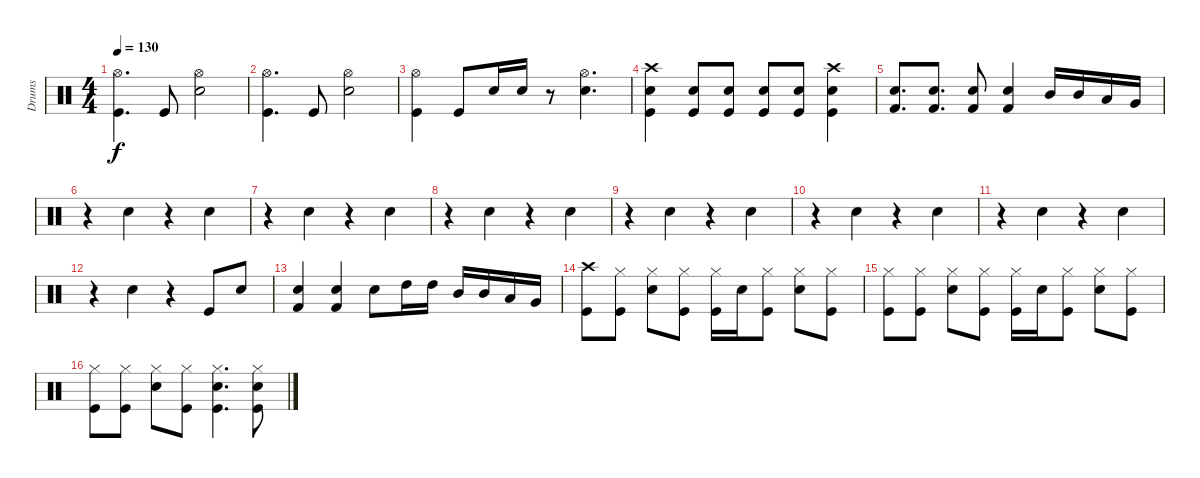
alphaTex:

\track ("Drums" "Drums") {instrument percussion}
\staff {score}
\articulation defaults
\ts (4 4)
\tempo 130
\clef neutral
\ks c
("Hi-Hat (open)" "Kick (hit)").4{d dy f} "Kick (hit)".8 ("Hi-Hat (open)" "Snare (hit) 2").2 |
("Hi-Hat (open)" "Kick (hit)").4{d} "Kick (hit)".8 ("Hi-Hat (open)" "Snare (hit) 2").2 |
("Hi-Hat (open)" "Kick (hit)").4 "Kick (hit)".8 "Snare (hit) 2".16 "Snare (hit) 2".16 r.8 ("Hi-Hat (open)" "Snare (hit) 2").4{d} |
("Crash high (hit)" "Snare (hit) 2" "Kick (hit)").4 ("Snare (hit) 2" "Kick (hit)").8 ("Snare (hit) 2" "Kick (hit)").8 ("Snare (hit) 2" "Kick (hit)").8 ("Snare (hit) 2" "Kick (hit)").8 ("Crash high (hit)" "Snare (hit) 2" "Kick (hit)").4 |
("Kick (hit) 2" "Snare (hit) 2").8{d} ("Kick (hit) 2" "Snare (hit) 2").8{d} ("Kick (hit) 2" "Snare (hit) 2").8 ("Kick (hit) 2" "Snare (hit) 2").4 "Mid Tom (hit)".16 "Mid Tom (hit)".16 "Low Tom (hit)".16 "Very Low Tom (hit)".16 |
r.4 "Snare (hit) 2".4 r.4 "Snare (hit) 2".4 |
r.4 "Snare (hit) 2".4 r.4 "Snare (hit) 2".4 |
r.4 "Snare (hit) 2".4 r.4 "Snare (hit) 2".4 |
r.4 "Snare (hit) 2".4 r.4 "Snare (hit) 2".4 |
r.4 "Snare (hit) 2".4 r.4 "Snare (hit) 2".4 |
r.4 "Snare (hit) 2".4 r.4 "Snare (hit) 2".4 |
r.4 "Snare (hit) 2".4 r.4 "Kick (hit)".8 "Snare (hit) 2".8 |
("Kick (hit) 2" "Snare (hit) 2").4 ("Kick (hit) 2" "Snare (hit) 2").4 "Snare (hit) 2".8 "High Tom (hit)".16 "High Tom (hit)".16 "Mid Tom (hit)".16 "Mid Tom (hit)".16 "Low Tom (hit)".16 "Very Low Tom (hit)".16 |
("Crash high (hit)" "Kick (hit)").8 ("Hi-Hat (closed)" "Kick (hit)").8 ("Hi-Hat (closed)" "Snare (hit) 2").8 ("Hi-Hat (closed)" "Kick (hit)").8 ("Hi-Hat (closed)" "Kick (hit)").16 "Snare (hit) 2".16 ("Hi-Hat (closed)" "Kick (hit)").8 ("Hi-Hat (closed)" "Snare (hit) 2").8 ("Hi-Hat (closed)" "Kick (hit)").8 |
("Hi-Hat (closed)" "Kick (hit)").8 ("Hi-Hat (closed)" "Kick (hit)").8 ("Hi-Hat (closed)" "Snare (hit) 2").8 ("Hi-Hat (closed)" "Kick (hit)").8 ("Hi-Hat (closed)" "Kick (hit)").16 "Snare (hit) 2".16 ("Hi-Hat (closed)" "Kick (hit)").8 ("Hi-Hat (closed)" "Snare (hit) 2").8 ("Hi-Hat (closed)" "Kick (hit)").8 |
("Hi-Hat (closed)" "Kick (hit)").8 ("Hi-Hat (closed)" "Kick (hit)").8 ("Hi-Hat (closed)" "Snare (hit) 2").8 ("Hi-Hat (closed)" "Kick (hit)").8 ("Hi-Hat (closed)" "Snare (hit) 2" "Kick (hit)").4{d} ("Hi-Hat (closed)" "Snare (hit) 2" "Kick (hit)").8
